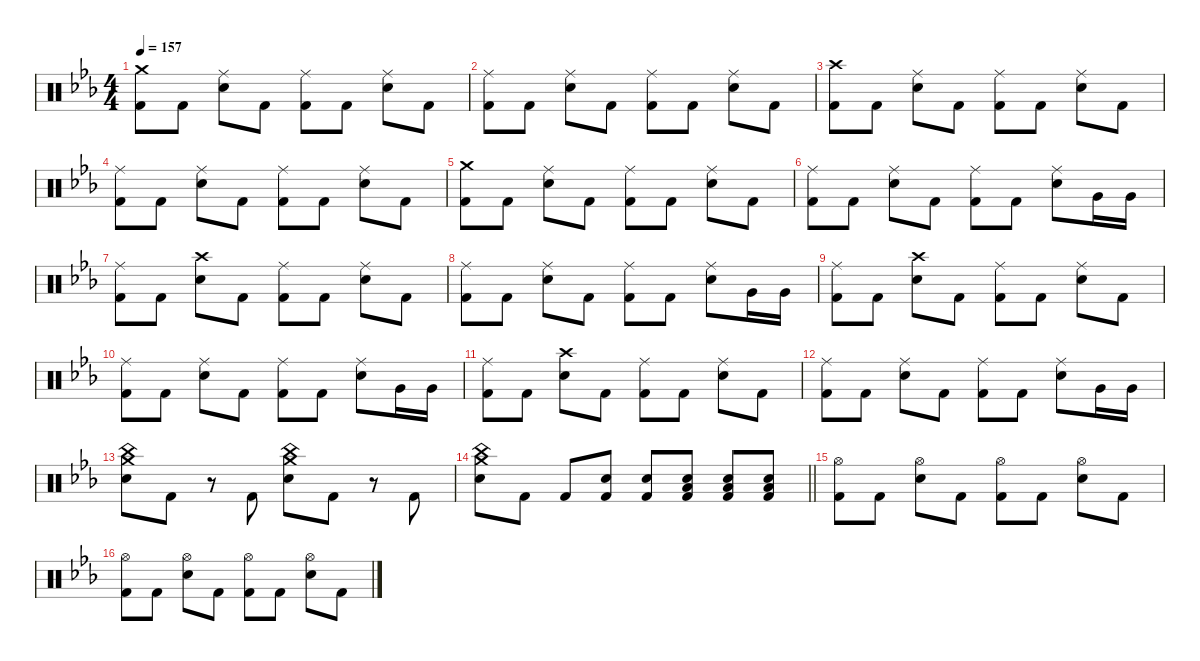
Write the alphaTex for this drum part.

\defaultSystemsLayout 4
\hideDynamics
\bracketExtendMode nobrackets
\singleTrackTrackNamePolicy hidden
\multiTrackTrackNamePolicy hidden
\firstSystemTrackNameMode fullname
\otherSystemsTrackNameOrientation horizontal
\track ("Drums" "drm.") {instrument percussion}
\staff {score}
\articulation defaults
\ts (4 4)
\tempo 157
\clef neutral
\ks cminor
("Crash medium (hit)"{acc forcenatural} "Kick (hit) 2"{acc forcenatural}).8{dy f beam Down} "Kick (hit) 2"{acc forcenatural}.8{beam Down} ("Ride (middle)"{acc forcenatural} "Snare (hit) 2"{acc forcenatural}).8{beam Down} "Kick (hit) 2"{acc forcenatural}.8{beam Down} ("Ride (middle)"{acc forcenatural} "Kick (hit) 2"{acc forcenatural}).8{beam Down} "Kick (hit) 2"{acc forcenatural}.8{beam Down} ("Ride (middle)"{acc forcenatural} "Snare (hit) 2"{acc forcenatural}).8{beam Down} "Kick (hit) 2"{acc forcenatural}.8{beam Down} |
("Ride (middle)"{acc forcenatural} "Kick (hit) 2"{acc forcenatural}).8{beam Down} "Kick (hit) 2"{acc forcenatural}.8{beam Down} ("Ride (middle)"{acc forcenatural} "Snare (hit) 2"{acc forcenatural}).8{beam Down} "Kick (hit) 2"{acc forcenatural}.8{beam Down} ("Ride (middle)"{acc forcenatural} "Kick (hit) 2"{acc forcenatural}).8{beam Down} "Kick (hit) 2"{acc forcenatural}.8{beam Down} ("Ride (middle)"{acc forcenatural} "Snare (hit) 2"{acc forcenatural}).8{beam Down} "Kick (hit) 2"{acc forcenatural}.8{beam Down} |
("Crash high (hit)"{acc forcenatural} "Kick (hit) 2"{acc forcenatural}).8{beam Down} "Kick (hit) 2"{acc forcenatural}.8{beam Down} ("Ride (middle)"{acc forcenatural} "Snare (hit) 2"{acc forcenatural}).8{beam Down} "Kick (hit) 2"{acc forcenatural}.8{beam Down} ("Ride (middle)"{acc forcenatural} "Kick (hit) 2"{acc forcenatural}).8{beam Down} "Kick (hit) 2"{acc forcenatural}.8{beam Down} ("Ride (middle)"{acc forcenatural} "Snare (hit) 2"{acc forcenatural}).8{beam Down} "Kick (hit) 2"{acc forcenatural}.8{beam Down} |
("Ride (middle)"{acc forcenatural} "Kick (hit) 2"{acc forcenatural}).8{beam Down} "Kick (hit) 2"{acc forcenatural}.8{beam Down} ("Ride (middle)"{acc forcenatural} "Snare (hit) 2"{acc forcenatural}).8{beam Down} "Kick (hit) 2"{acc forcenatural}.8{beam Down} ("Ride (middle)"{acc forcenatural} "Kick (hit) 2"{acc forcenatural}).8{beam Down} "Kick (hit) 2"{acc forcenatural}.8{beam Down} ("Ride (middle)"{acc forcenatural} "Snare (hit) 2"{acc forcenatural}).8{beam Down} "Kick (hit) 2"{acc forcenatural}.8{beam Down} |
("Crash medium (hit)"{acc forcenatural} "Kick (hit) 2"{acc forcenatural}).8{beam Down} "Kick (hit) 2"{acc forcenatural}.8{beam Down} ("Ride (middle)"{acc forcenatural} "Snare (hit) 2"{acc forcenatural}).8{beam Down} "Kick (hit) 2"{acc forcenatural}.8{beam Down} ("Ride (middle)"{acc forcenatural} "Kick (hit) 2"{acc forcenatural}).8{beam Down} "Kick (hit) 2"{acc forcenatural}.8{beam Down} ("Ride (middle)"{acc forcenatural} "Snare (hit) 2"{acc forcenatural}).8{beam Down} "Kick (hit) 2"{acc forcenatural}.8{beam Down} |
("Ride (middle)"{acc forcenatural} "Kick (hit) 2"{acc forcenatural}).8{beam Down} "Kick (hit) 2"{acc forcenatural}.8{beam Down} ("Ride (middle)"{acc forcenatural} "Snare (hit) 2"{acc forcenatural}).8{beam Down} "Kick (hit) 2"{acc forcenatural}.8{beam Down} ("Ride (middle)"{acc forcenatural} "Kick (hit) 2"{acc forcenatural}).8{beam Down} "Kick (hit) 2"{acc forcenatural}.8{beam Down} ("Ride (middle)"{acc forcenatural} "Snare (hit) 2"{acc forcenatural}).8{beam Down} "Very Low Tom (hit)"{acc forcenatural}.16{dy fff beam Down} "Very Low Tom (hit)"{acc forcenatural}.16{beam Down} |
("Ride (middle)"{acc forcenatural} "Kick (hit) 2"{acc forcenatural}).8{dy f beam Down} "Kick (hit) 2"{acc forcenatural}.8{beam Down} ("Crash high (hit)"{acc forcenatural} "Snare (hit) 2"{acc forcenatural}).8{beam Down} "Kick (hit) 2"{acc forcenatural}.8{beam Down} ("Ride (middle)"{acc forcenatural} "Kick (hit) 2"{acc forcenatural}).8{beam Down} "Kick (hit) 2"{acc forcenatural}.8{beam Down} ("Ride (middle)"{acc forcenatural} "Snare (hit) 2"{acc forcenatural}).8{beam Down} "Kick (hit) 2"{acc forcenatural}.8{beam Down} |
("Ride (middle)"{acc forcenatural} "Kick (hit) 2"{acc forcenatural}).8{beam Down} "Kick (hit) 2"{acc forcenatural}.8{beam Down} ("Ride (middle)"{acc forcenatural} "Snare (hit) 2"{acc forcenatural}).8{beam Down} "Kick (hit) 2"{acc forcenatural}.8{beam Down} ("Ride (middle)"{acc forcenatural} "Kick (hit) 2"{acc forcenatural}).8{beam Down} "Kick (hit) 2"{acc forcenatural}.8{beam Down} ("Ride (middle)"{acc forcenatural} "Snare (hit) 2"{acc forcenatural}).8{beam Down} "Very Low Tom (hit)"{acc forcenatural}.16{dy fff beam Down} "Very Low Tom (hit)"{acc forcenatural}.16{beam Down} |
("Ride (middle)"{acc forcenatural} "Kick (hit) 2"{acc forcenatural}).8{dy f beam Down} "Kick (hit) 2"{acc forcenatural}.8{beam Down} ("Crash high (hit)"{acc forcenatural} "Snare (hit) 2"{acc forcenatural}).8{beam Down} "Kick (hit) 2"{acc forcenatural}.8{beam Down} ("Ride (middle)"{acc forcenatural} "Kick (hit) 2"{acc forcenatural}).8{beam Down} "Kick (hit) 2"{acc forcenatural}.8{beam Down} ("Ride (middle)"{acc forcenatural} "Snare (hit) 2"{acc forcenatural}).8{beam Down} "Kick (hit) 2"{acc forcenatural}.8{beam Down} |
("Ride (middle)"{acc forcenatural} "Kick (hit) 2"{acc forcenatural}).8{beam Down} "Kick (hit) 2"{acc forcenatural}.8{beam Down} ("Ride (middle)"{acc forcenatural} "Snare (hit) 2"{acc forcenatural}).8{beam Down} "Kick (hit) 2"{acc forcenatural}.8{beam Down} ("Ride (middle)"{acc forcenatural} "Kick (hit) 2"{acc forcenatural}).8{beam Down} "Kick (hit) 2"{acc forcenatural}.8{beam Down} ("Ride (middle)"{acc forcenatural} "Snare (hit) 2"{acc forcenatural}).8{beam Down} "Very Low Tom (hit)"{acc forcenatural}.16{dy fff beam Down} "Very Low Tom (hit)"{acc forcenatural}.16{beam Down} |
("Ride (middle)"{acc forcenatural} "Kick (hit) 2"{acc forcenatural}).8{dy f beam Down} "Kick (hit) 2"{acc forcenatural}.8{beam Down} ("Crash high (hit)"{acc forcenatural} "Snare (hit) 2"{acc forcenatural}).8{beam Down} "Kick (hit) 2"{acc forcenatural}.8{beam Down} ("Ride (middle)"{acc forcenatural} "Kick (hit) 2"{acc forcenatural}).8{beam Down} "Kick (hit) 2"{acc forcenatural}.8{beam Down} ("Ride (middle)"{acc forcenatural} "Snare (hit) 2"{acc forcenatural}).8{beam Down} "Kick (hit) 2"{acc forcenatural}.8{beam Down} |
("Ride (middle)"{acc forcenatural} "Kick (hit) 2"{acc forcenatural}).8{beam Down} "Kick (hit) 2"{acc forcenatural}.8{beam Down} ("Ride (middle)"{acc forcenatural} "Snare (hit) 2"{acc forcenatural}).8{beam Down} "Kick (hit) 2"{acc forcenatural}.8{beam Down} ("Ride (middle)"{acc forcenatural} "Kick (hit) 2"{acc forcenatural}).8{beam Down} "Kick (hit) 2"{acc forcenatural}.8{beam Down} ("Ride (middle)"{acc forcenatural} "Snare (hit) 2"{acc forcenatural}).8{beam Down} "Very Low Tom (hit)"{acc forcenatural}.16{dy fff beam Down} "Very Low Tom (hit)"{acc forcenatural}.16{beam Down} |
("China (hit)"{acc forcenatural} "Crash medium (hit)"{acc forcenatural} "Snare (hit) 2"{acc forcenatural}).8{dy mp beam Down} "Kick (hit) 2"{acc forcenatural}.8{dy f beam Down} r.8{beam Down} "Kick (hit) 2"{acc forcenatural}.8{beam Up} ("China (hit)"{acc forcenatural} "Crash medium (hit)"{acc forcenatural} "Snare (hit) 2"{acc forcenatural}).8{dy mp beam Down} "Kick (hit) 2"{acc forcenatural}.8{dy f beam Down} r.8{beam Down} "Kick (hit) 2"{acc forcenatural}.8{beam Up} |
\barLineRight lightlight
("China (hit)"{acc forcenatural} "Crash medium (hit)"{acc forcenatural} "Snare (hit) 2"{acc forcenatural}).8{dy mp beam Down} "Kick (hit) 2"{acc forcenatural}.8{dy f beam Down} "Kick (hit) 2"{acc forcenatural}.8{beam Up} ("Snare (hit) 2"{acc forcenatural} "Kick (hit) 2"{acc forcenatural}).8{dy pp beam Up} ("Snare (hit) 2"{acc forcenatural} "Kick (hit) 2"{acc forcenatural}).8{dy p beam Up} ("Snare (hit) 2"{acc forcenatural} "Low Floor Tom (hit)"{acc forcenatural} "Kick (hit) 2"{acc forcenatural}).8{dy mp beam Up} ("Snare (hit) 2"{acc forcenatural} "Low Floor Tom (hit)"{acc forcenatural} "Kick (hit) 2"{acc forcenatural}).8{dy mf beam Up} ("Snare (hit) 2"{acc forcenatural} "Low Floor Tom (hit)"{acc forcenatural} "Kick (hit) 2"{acc forcenatural}).8{dy f beam Up} |
("Hi-Hat (open)"{acc forcenatural} "Kick (hit) 2"{acc forcenatural}).8{beam Down} "Kick (hit) 2"{acc forcenatural}.8{beam Down} ("Hi-Hat (open)"{acc forcenatural} "Snare (hit) 2"{acc forcenatural}).8{beam Down} "Kick (hit) 2"{acc forcenatural}.8{beam Down} ("Hi-Hat (open)"{acc forcenatural} "Kick (hit) 2"{acc forcenatural}).8{beam Down} "Kick (hit) 2"{acc forcenatural}.8{beam Down} ("Hi-Hat (open)"{acc forcenatural} "Snare (hit) 2"{acc forcenatural}).8{beam Down} "Kick (hit) 2"{acc forcenatural}.8{beam Down} |
("Hi-Hat (open)"{acc forcenatural} "Kick (hit) 2"{acc forcenatural}).8{beam Down} "Kick (hit) 2"{acc forcenatural}.8{beam Down} ("Hi-Hat (open)"{acc forcenatural} "Snare (hit) 2"{acc forcenatural}).8{beam Down} "Kick (hit) 2"{acc forcenatural}.8{beam Down} ("Hi-Hat (open)"{acc forcenatural} "Kick (hit) 2"{acc forcenatural}).8{beam Down} "Kick (hit) 2"{acc forcenatural}.8{beam Down} ("Hi-Hat (open)"{acc forcenatural} "Snare (hit) 2"{acc forcenatural}).8{beam Down} "Kick (hit) 2"{acc forcenatural}.8{beam Down}
